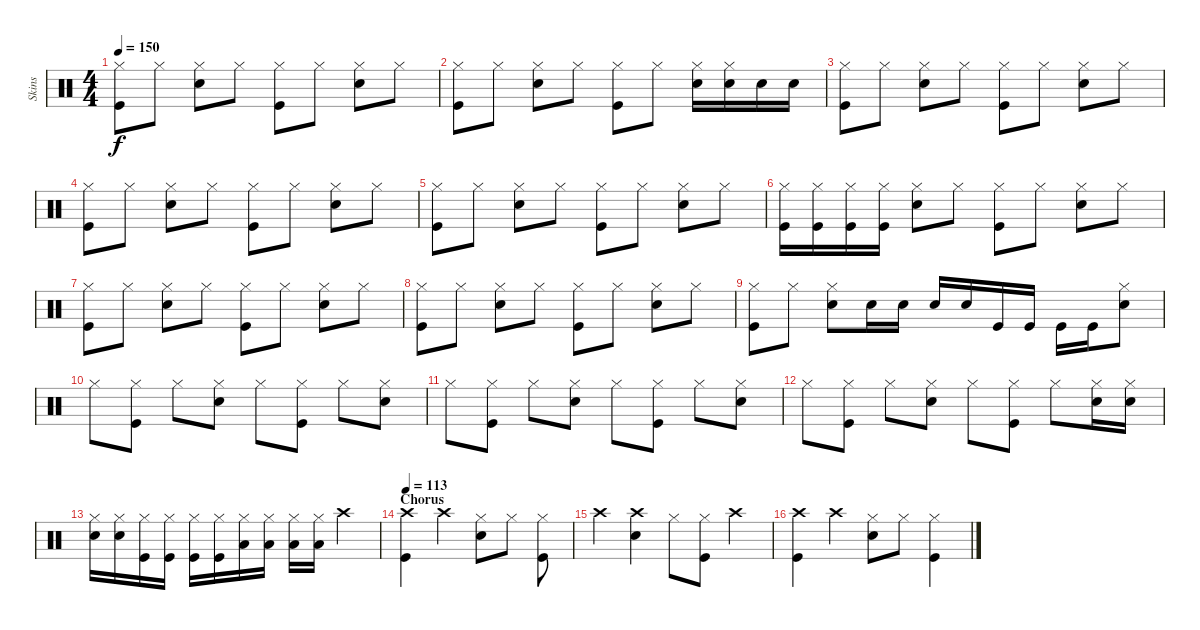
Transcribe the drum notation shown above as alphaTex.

\track ("Skins" "Skins") {instrument percussion}
\staff {score}
\articulation defaults
\ts (4 4)
\tempo 150
\clef neutral
\ks c
("Hi-Hat (closed)" "Kick (hit)").8{dy f} "Hi-Hat (closed)".8 ("Hi-Hat (closed)" "Snare (hit) 2").8 "Hi-Hat (closed)".8 ("Hi-Hat (closed)" "Kick (hit)").8 "Hi-Hat (closed)".8 ("Hi-Hat (closed)" "Snare (hit) 2").8 "Hi-Hat (closed)".8 |
("Hi-Hat (closed)" "Kick (hit)").8 "Hi-Hat (closed)".8 ("Hi-Hat (closed)" "Snare (hit) 2").8 "Hi-Hat (closed)".8 ("Hi-Hat (closed)" "Kick (hit)").8 "Hi-Hat (closed)".8 ("Hi-Hat (closed)" "Snare (hit) 2").16 ("Hi-Hat (closed)" "Snare (hit) 2").16 "Snare (hit) 2".16 "Snare (hit) 2".16 |
("Hi-Hat (closed)" "Kick (hit)").8 "Hi-Hat (closed)".8 ("Hi-Hat (closed)" "Snare (hit) 2").8 "Hi-Hat (closed)".8 ("Hi-Hat (closed)" "Kick (hit)").8 "Hi-Hat (closed)".8 ("Hi-Hat (closed)" "Snare (hit) 2").8 "Hi-Hat (closed)".8 |
("Hi-Hat (closed)" "Kick (hit)").8 "Hi-Hat (closed)".8 ("Hi-Hat (closed)" "Snare (hit) 2").8 "Hi-Hat (closed)".8 ("Hi-Hat (closed)" "Kick (hit)").8 "Hi-Hat (closed)".8 ("Hi-Hat (closed)" "Snare (hit) 2").8 "Hi-Hat (closed)".8 |
("Hi-Hat (closed)" "Kick (hit)").8 "Hi-Hat (closed)".8 ("Hi-Hat (closed)" "Snare (hit) 2").8 "Hi-Hat (closed)".8 ("Hi-Hat (closed)" "Kick (hit)").8 "Hi-Hat (closed)".8 ("Hi-Hat (closed)" "Snare (hit) 2").8 "Hi-Hat (closed)".8 |
("Hi-Hat (closed)" "Kick (hit)").16 ("Hi-Hat (closed)" "Kick (hit)").16 ("Hi-Hat (closed)" "Kick (hit)").16 ("Hi-Hat (closed)" "Kick (hit)").16 ("Hi-Hat (closed)" "Snare (hit) 2").8 "Hi-Hat (closed)".8 ("Hi-Hat (closed)" "Kick (hit)").8 "Hi-Hat (closed)".8 ("Hi-Hat (closed)" "Snare (hit) 2").8 "Hi-Hat (closed)".8 |
("Hi-Hat (closed)" "Kick (hit)").8 "Hi-Hat (closed)".8 ("Hi-Hat (closed)" "Snare (hit) 2").8 "Hi-Hat (closed)".8 ("Hi-Hat (closed)" "Kick (hit)").8 "Hi-Hat (closed)".8 ("Hi-Hat (closed)" "Snare (hit) 2").8 "Hi-Hat (closed)".8 |
("Hi-Hat (closed)" "Kick (hit)").8 "Hi-Hat (closed)".8 ("Hi-Hat (closed)" "Snare (hit) 2").8 "Hi-Hat (closed)".8 ("Hi-Hat (closed)" "Kick (hit)").8 "Hi-Hat (closed)".8 ("Hi-Hat (closed)" "Snare (hit) 2").8 "Hi-Hat (closed)".8 |
("Hi-Hat (closed)" "Kick (hit)").8 "Hi-Hat (closed)".8 ("Hi-Hat (closed)" "Snare (hit) 2").8 "Snare (hit) 2".16 "Snare (hit) 2".16 "Snare (hit) 2".16 "Snare (hit) 2".16 "Kick (hit)".16 "Kick (hit)".16 "Kick (hit)".16 "Kick (hit)".16 ("Hi-Hat (closed)" "Snare (hit) 2").8 |
"Hi-Hat (closed)".8 ("Hi-Hat (closed)" "Kick (hit)").8 "Hi-Hat (closed)".8 ("Hi-Hat (closed)" "Snare (hit) 2").8 "Hi-Hat (closed)".8 ("Hi-Hat (closed)" "Kick (hit)").8 "Hi-Hat (closed)".8 ("Hi-Hat (closed)" "Snare (hit) 2").8 |
"Hi-Hat (closed)".8 ("Hi-Hat (closed)" "Kick (hit)").8 "Hi-Hat (closed)".8 ("Hi-Hat (closed)" "Snare (hit) 2").8 "Hi-Hat (closed)".8 ("Hi-Hat (closed)" "Kick (hit)").8 "Hi-Hat (closed)".8 ("Hi-Hat (closed)" "Snare (hit) 2").8 |
"Hi-Hat (closed)".8 ("Hi-Hat (closed)" "Kick (hit)").8 "Hi-Hat (closed)".8 ("Hi-Hat (closed)" "Snare (hit) 2").8 "Hi-Hat (closed)".8 ("Hi-Hat (closed)" "Kick (hit)").8 "Hi-Hat (closed)".8 ("Hi-Hat (closed)" "Snare (hit) 2").16 ("Hi-Hat (closed)" "Snare (hit) 2").16 |
("Hi-Hat (closed)" "Snare (hit) 2").16 ("Hi-Hat (closed)" "Snare (hit) 2").16 ("Hi-Hat (closed)" "Kick (hit)").16 ("Hi-Hat (closed)" "Kick (hit)").16 ("Hi-Hat (closed)" "Kick (hit)").16 ("Hi-Hat (closed)" "Kick (hit)").16 ("Hi-Hat (closed)" "Low Tom (hit)").16 ("Hi-Hat (closed)" "Low Tom (hit)").16 ("Hi-Hat (closed)" "Low Tom (hit)").16 ("Hi-Hat (closed)" "Low Tom (hit)").16 "Crash high (hit)".4 |
\section ("" "Chorus")
\tempo 113
("Crash high (hit)" "Kick (hit)").4 "Crash high (hit)".4 ("Hi-Hat (closed)" "Snare (hit) 2").8 "Hi-Hat (closed)".8 ("Hi-Hat (closed)" "Kick (hit)").8 |
"Crash high (hit)".4 ("Crash high (hit)" "Snare (hit) 2").4 "Hi-Hat (closed)".8 ("Hi-Hat (closed)" "Kick (hit)").8 "Crash high (hit)".4 |
("Crash high (hit)" "Kick (hit)").4 "Crash high (hit)".4 ("Hi-Hat (closed)" "Snare (hit) 2").8 "Hi-Hat (closed)".8 ("Hi-Hat (closed)" "Kick (hit)").4
